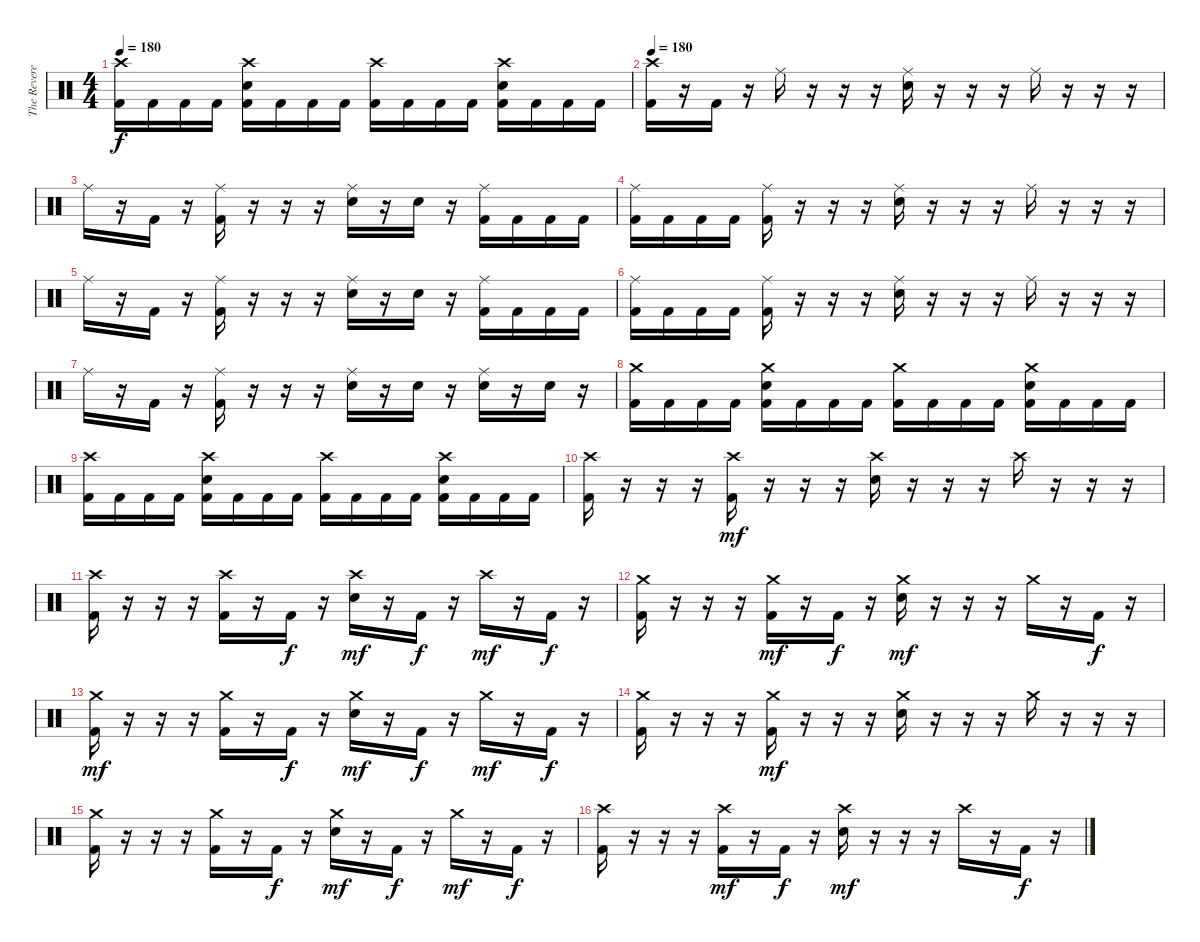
\track ("The Reverend" "The Revere") {instrument percussion}
\staff {score}
\articulation defaults
\ts (4 4)
\tempo 180
\clef neutral
\ks c
("Crash high (hit)" "Kick (hit) 2").16{dy f} "Kick (hit) 2".16 "Kick (hit) 2".16 "Kick (hit) 2".16 ("Crash high (hit)" "Snare (hit) 2" "Kick (hit) 2").16 "Kick (hit) 2".16 "Kick (hit) 2".16 "Kick (hit) 2".16 ("Crash high (hit)" "Kick (hit) 2").16 "Kick (hit) 2".16 "Kick (hit) 2".16 "Kick (hit) 2".16 ("Crash high (hit)" "Snare (hit) 2" "Kick (hit) 2").16 "Kick (hit) 2".16 "Kick (hit) 2".16 "Kick (hit) 2".16 |
\tempo 180
("Crash high (hit)" "Kick (hit) 2").16 r.16 "Kick (hit) 2".16 r.16 "Ride (middle)".16 r.16 r.16 r.16 ("Ride (middle)" "Snare (hit) 2").16 r.16 r.16 r.16 "Ride (middle)".16 r.16 r.16 r.16 |
"Ride (middle)".16 r.16 "Kick (hit) 2".16 r.16 ("Ride (middle)" "Kick (hit) 2").16 r.16 r.16 r.16 ("Ride (middle)" "Snare (hit) 2").16 r.16 "Snare (hit) 2".16 r.16 ("Ride (middle)" "Kick (hit) 2").16 "Kick (hit) 2".16 "Kick (hit) 2".16 "Kick (hit) 2".16 |
("Ride (middle)" "Kick (hit) 2").16 "Kick (hit) 2".16 "Kick (hit) 2".16 "Kick (hit) 2".16 ("Ride (middle)" "Kick (hit) 2").16 r.16 r.16 r.16 ("Ride (middle)" "Snare (hit) 2").16 r.16 r.16 r.16 "Ride (middle)".16 r.16 r.16 r.16 |
"Ride (middle)".16 r.16 "Kick (hit) 2".16 r.16 ("Ride (middle)" "Kick (hit) 2").16 r.16 r.16 r.16 ("Ride (middle)" "Snare (hit) 2").16 r.16 "Snare (hit) 2".16 r.16 ("Ride (middle)" "Kick (hit) 2").16 "Kick (hit) 2".16 "Kick (hit) 2".16 "Kick (hit) 2".16 |
("Ride (middle)" "Kick (hit) 2").16 "Kick (hit) 2".16 "Kick (hit) 2".16 "Kick (hit) 2".16 ("Ride (middle)" "Kick (hit) 2").16 r.16 r.16 r.16 ("Ride (middle)" "Snare (hit) 2").16 r.16 r.16 r.16 "Ride (middle)".16 r.16 r.16 r.16 |
"Ride (middle)".16 r.16 "Kick (hit) 2".16 r.16 ("Ride (middle)" "Kick (hit) 2").16 r.16 r.16 r.16 ("Ride (middle)" "Snare (hit) 2").16 r.16 "Snare (hit) 2".16 r.16 ("Ride (middle)" "Snare (hit) 2").16 r.16 "Snare (hit) 2".16 r.16 |
("Crash medium (hit)" "Kick (hit) 2").16 "Kick (hit) 2".16 "Kick (hit) 2".16 "Kick (hit) 2".16 ("Crash medium (hit)" "Snare (hit) 2" "Kick (hit) 2").16 "Kick (hit) 2".16 "Kick (hit) 2".16 "Kick (hit) 2".16 ("Crash medium (hit)" "Kick (hit) 2").16 "Kick (hit) 2".16 "Kick (hit) 2".16 "Kick (hit) 2".16 ("Crash medium (hit)" "Snare (hit) 2" "Kick (hit) 2").16 "Kick (hit) 2".16 "Kick (hit) 2".16 "Kick (hit) 2".16 |
("Crash high (hit)" "Kick (hit) 2").16 "Kick (hit) 2".16 "Kick (hit) 2".16 "Kick (hit) 2".16 ("Crash high (hit)" "Snare (hit) 2" "Kick (hit) 2").16 "Kick (hit) 2".16 "Kick (hit) 2".16 "Kick (hit) 2".16 ("Crash high (hit)" "Kick (hit) 2").16 "Kick (hit) 2".16 "Kick (hit) 2".16 "Kick (hit) 2".16 ("Crash high (hit)" "Snare (hit) 2" "Kick (hit) 2").16 "Kick (hit) 2".16 "Kick (hit) 2".16 "Kick (hit) 2".16 |
("Crash high (hit)" "Kick (hit) 2").16 r.16 r.16 r.16 ("Crash high (hit)" "Kick (hit) 2").16{dy mf} r.16 r.16 r.16 ("Crash high (hit)" "Snare (hit) 2").16 r.16 r.16 r.16 "Crash high (hit)".16 r.16 r.16 r.16 |
("Crash high (hit)" "Kick (hit) 2").16 r.16 r.16 r.16 ("Crash high (hit)" "Kick (hit) 2").16 r.16 "Kick (hit) 2".16{dy f} r.16 ("Crash high (hit)" "Snare (hit) 2").16{dy mf} r.16 "Kick (hit) 2".16{dy f} r.16 "Crash high (hit)".16{dy mf} r.16 "Kick (hit) 2".16{dy f} r.16 |
("Crash medium (hit)" "Kick (hit) 2").16 r.16 r.16 r.16 ("Crash medium (hit)" "Kick (hit) 2").16{dy mf} r.16 "Kick (hit) 2".16{dy f} r.16 ("Crash medium (hit)" "Snare (hit) 2").16{dy mf} r.16 r.16 r.16 "Crash medium (hit)".16 r.16 "Kick (hit) 2".16{dy f} r.16 |
("Crash medium (hit)" "Kick (hit) 2").16{dy mf} r.16 r.16 r.16 ("Crash medium (hit)" "Kick (hit) 2").16 r.16 "Kick (hit) 2".16{dy f} r.16 ("Crash medium (hit)" "Snare (hit) 2").16{dy mf} r.16 "Kick (hit) 2".16{dy f} r.16 "Crash medium (hit)".16{dy mf} r.16 "Kick (hit) 2".16{dy f} r.16 |
("Crash medium (hit)" "Kick (hit) 2").16 r.16 r.16 r.16 ("Crash medium (hit)" "Kick (hit) 2").16{dy mf} r.16 r.16 r.16 ("Crash medium (hit)" "Snare (hit) 2").16 r.16 r.16 r.16 "Crash medium (hit)".16 r.16 r.16 r.16 |
("Crash medium (hit)" "Kick (hit) 2").16 r.16 r.16 r.16 ("Crash medium (hit)" "Kick (hit) 2").16 r.16 "Kick (hit) 2".16{dy f} r.16 ("Crash medium (hit)" "Snare (hit) 2").16{dy mf} r.16 "Kick (hit) 2".16{dy f} r.16 "Crash medium (hit)".16{dy mf} r.16 "Kick (hit) 2".16{dy f} r.16 |
("Crash high (hit)" "Kick (hit) 2").16 r.16 r.16 r.16 ("Crash high (hit)" "Kick (hit) 2").16{dy mf} r.16 "Kick (hit) 2".16{dy f} r.16 ("Crash high (hit)" "Snare (hit) 2").16{dy mf} r.16 r.16 r.16 "Crash high (hit)".16 r.16 "Kick (hit) 2".16{dy f} r.16
